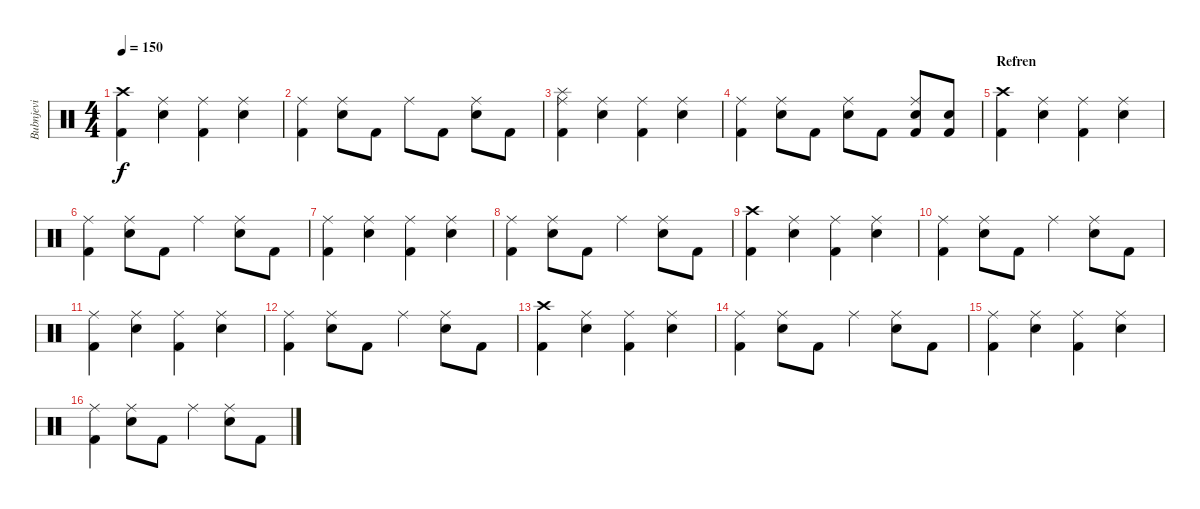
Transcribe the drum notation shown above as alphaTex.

\track ("Bubnjevi" "Bubnjevi") {instrument percussion}
\staff {score}
\articulation defaults
\ts (4 4)
\tempo 150
\clef neutral
\ks c
("Crash high (hit)" "Kick (hit) 2").4{dy f} ("Ride (middle)" "Snare (hit) 2").4 ("Ride (middle)" "Kick (hit) 2").4 ("Ride (middle)" "Snare (hit) 2").4 |
("Ride (middle)" "Kick (hit) 2").4 ("Ride (middle)" "Snare (hit) 2").8 "Kick (hit) 2".8 "Ride (middle)".8 "Kick (hit) 2".8 ("Ride (middle)" "Snare (hit) 2").8 "Kick (hit) 2".8 |
("Splash (hit)" "Ride (middle)" "Kick (hit) 2").4 ("Ride (middle)" "Snare (hit) 2").4 ("Ride (middle)" "Kick (hit) 2").4 ("Ride (middle)" "Snare (hit) 2").4 |
("Ride (middle)" "Kick (hit) 2").4 ("Ride (middle)" "Snare (hit) 2").8 "Kick (hit) 2".8 ("Ride (middle)" "Snare (hit) 2").8 "Kick (hit) 2".8 ("Ride (middle)" "Snare (hit) 2" "Kick (hit) 2").8 ("Snare (hit) 2" "Kick (hit) 2").8 |
\section ("" "Refren")
("Crash high (hit)" "Kick (hit) 2").4 ("Ride (middle)" "Snare (hit) 2").4 ("Ride (middle)" "Kick (hit) 2").4 ("Ride (middle)" "Snare (hit) 2").4 |
("Ride (middle)" "Kick (hit) 2").4 ("Ride (middle)" "Snare (hit) 2").8 "Kick (hit) 2".8 "Ride (middle)".4 ("Ride (middle)" "Snare (hit) 2").8 "Kick (hit) 2".8 |
("Ride (middle)" "Kick (hit) 2").4 ("Ride (middle)" "Snare (hit) 2").4 ("Ride (middle)" "Kick (hit) 2").4 ("Ride (middle)" "Snare (hit) 2").4 |
("Ride (middle)" "Kick (hit) 2").4 ("Ride (middle)" "Snare (hit) 2").8 "Kick (hit) 2".8 "Ride (middle)".4 ("Ride (middle)" "Snare (hit) 2").8 "Kick (hit) 2".8 |
("Crash high (hit)" "Kick (hit) 2").4 ("Ride (middle)" "Snare (hit) 2").4 ("Ride (middle)" "Kick (hit) 2").4 ("Ride (middle)" "Snare (hit) 2").4 |
("Ride (middle)" "Kick (hit) 2").4 ("Ride (middle)" "Snare (hit) 2").8 "Kick (hit) 2".8 "Ride (middle)".4 ("Ride (middle)" "Snare (hit) 2").8 "Kick (hit) 2".8 |
("Ride (middle)" "Kick (hit) 2").4 ("Ride (middle)" "Snare (hit) 2").4 ("Ride (middle)" "Kick (hit) 2").4 ("Ride (middle)" "Snare (hit) 2").4 |
("Ride (middle)" "Kick (hit) 2").4 ("Ride (middle)" "Snare (hit) 2").8 "Kick (hit) 2".8 "Ride (middle)".4 ("Ride (middle)" "Snare (hit) 2").8 "Kick (hit) 2".8 |
("Crash high (hit)" "Kick (hit) 2").4 ("Ride (middle)" "Snare (hit) 2").4 ("Ride (middle)" "Kick (hit) 2").4 ("Ride (middle)" "Snare (hit) 2").4 |
("Ride (middle)" "Kick (hit) 2").4 ("Ride (middle)" "Snare (hit) 2").8 "Kick (hit) 2".8 "Ride (middle)".4 ("Ride (middle)" "Snare (hit) 2").8 "Kick (hit) 2".8 |
("Ride (middle)" "Kick (hit) 2").4 ("Ride (middle)" "Snare (hit) 2").4 ("Ride (middle)" "Kick (hit) 2").4 ("Ride (middle)" "Snare (hit) 2").4 |
("Ride (middle)" "Kick (hit) 2").4 ("Ride (middle)" "Snare (hit) 2").8 "Kick (hit) 2".8 "Ride (middle)".4 ("Ride (middle)" "Snare (hit) 2").8 "Kick (hit) 2".8
